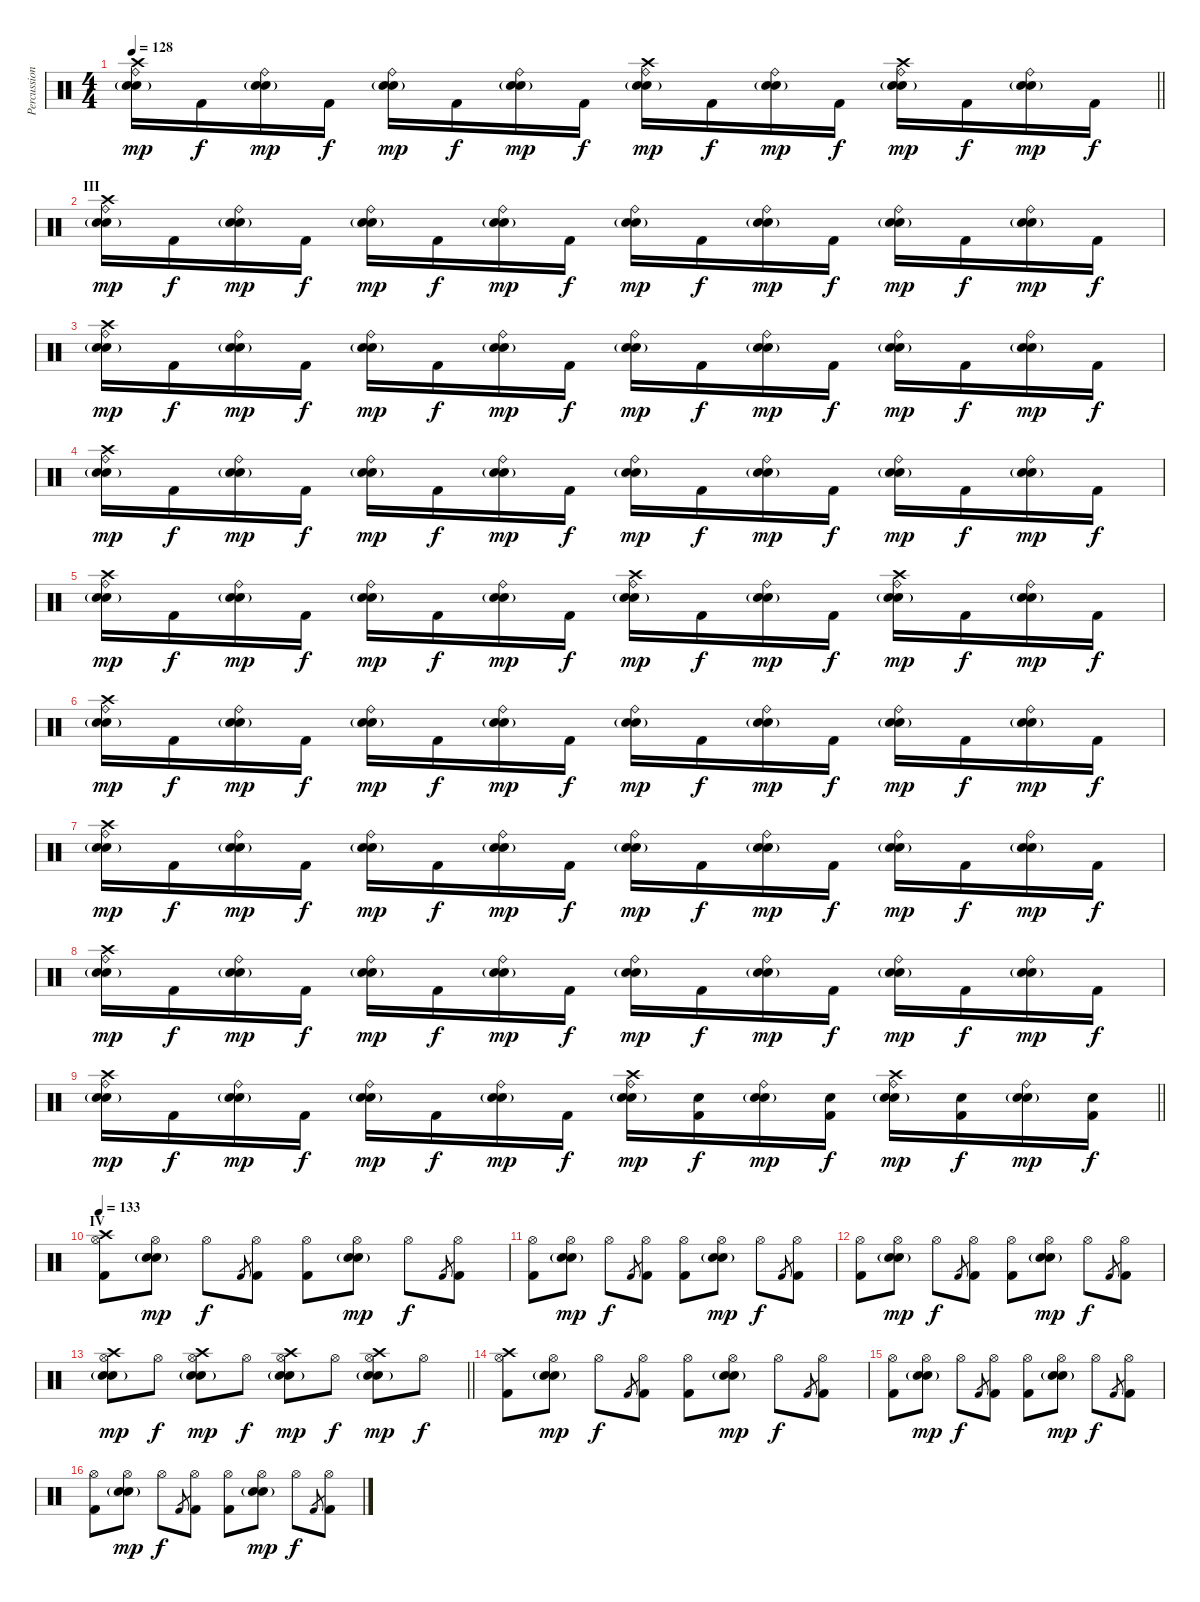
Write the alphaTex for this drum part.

\track ("Percussion" "Percussion") {instrument percussion}
\staff {score}
\articulation defaults
\ts (4 4)
\tempo 128
\clef neutral
\barLineRight lightlight
\ks c
("Crash high (hit)" "Electric Snare (hit)" "Snare (hit) 2"{g} "Ride (bell)").16{dy mp} "Kick (hit) 2".16{dy f} ("Electric Snare (hit)" "Snare (hit) 2"{g} "Ride (bell)").16{dy mp} "Kick (hit) 2".16{dy f} ("Electric Snare (hit)" "Snare (hit) 2"{g} "Ride (bell)").16{dy mp} "Kick (hit) 2".16{dy f} ("Electric Snare (hit)" "Snare (hit) 2"{g} "Ride (bell)").16{dy mp} "Kick (hit) 2".16{dy f} ("Crash high (hit)" "Electric Snare (hit)" "Snare (hit) 2"{g} "Ride (bell)").16{dy mp} "Kick (hit) 2".16{dy f} ("Electric Snare (hit)" "Snare (hit) 2"{g} "Ride (bell)").16{dy mp} "Kick (hit) 2".16{dy f} ("Crash high (hit)" "Electric Snare (hit)" "Snare (hit) 2"{g} "Ride (bell)").16{dy mp} "Kick (hit) 2".16{dy f} ("Electric Snare (hit)" "Snare (hit) 2"{g} "Ride (bell)").16{dy mp} "Kick (hit) 2".16{dy f} |
\section ("" "III")
("Crash high (hit)" "Electric Snare (hit)" "Snare (hit) 2"{g} "Ride (bell)").16{dy mp} "Kick (hit) 2".16{dy f} ("Electric Snare (hit)" "Snare (hit) 2"{g} "Ride (bell)").16{dy mp} "Kick (hit) 2".16{dy f} ("Electric Snare (hit)" "Snare (hit) 2"{g} "Ride (bell)").16{dy mp} "Kick (hit) 2".16{dy f} ("Electric Snare (hit)" "Snare (hit) 2"{g} "Ride (bell)").16{dy mp} "Kick (hit) 2".16{dy f} ("Electric Snare (hit)" "Snare (hit) 2"{g} "Ride (bell)").16{dy mp} "Kick (hit) 2".16{dy f} ("Electric Snare (hit)" "Snare (hit) 2"{g} "Ride (bell)").16{dy mp} "Kick (hit) 2".16{dy f} ("Electric Snare (hit)" "Snare (hit) 2"{g} "Ride (bell)").16{dy mp} "Kick (hit) 2".16{dy f} ("Electric Snare (hit)" "Snare (hit) 2"{g} "Ride (bell)").16{dy mp} "Kick (hit) 2".16{dy f} |
("Crash high (hit)" "Electric Snare (hit)" "Snare (hit) 2"{g} "Ride (bell)").16{dy mp} "Kick (hit) 2".16{dy f} ("Electric Snare (hit)" "Snare (hit) 2"{g} "Ride (bell)").16{dy mp} "Kick (hit) 2".16{dy f} ("Electric Snare (hit)" "Snare (hit) 2"{g} "Ride (bell)").16{dy mp} "Kick (hit) 2".16{dy f} ("Electric Snare (hit)" "Snare (hit) 2"{g} "Ride (bell)").16{dy mp} "Kick (hit) 2".16{dy f} ("Electric Snare (hit)" "Snare (hit) 2"{g} "Ride (bell)").16{dy mp} "Kick (hit) 2".16{dy f} ("Electric Snare (hit)" "Snare (hit) 2"{g} "Ride (bell)").16{dy mp} "Kick (hit) 2".16{dy f} ("Electric Snare (hit)" "Snare (hit) 2"{g} "Ride (bell)").16{dy mp} "Kick (hit) 2".16{dy f} ("Electric Snare (hit)" "Snare (hit) 2"{g} "Ride (bell)").16{dy mp} "Kick (hit) 2".16{dy f} |
("Crash high (hit)" "Electric Snare (hit)" "Snare (hit) 2"{g} "Ride (bell)").16{dy mp} "Kick (hit) 2".16{dy f} ("Electric Snare (hit)" "Snare (hit) 2"{g} "Ride (bell)").16{dy mp} "Kick (hit) 2".16{dy f} ("Electric Snare (hit)" "Snare (hit) 2"{g} "Ride (bell)").16{dy mp} "Kick (hit) 2".16{dy f} ("Electric Snare (hit)" "Snare (hit) 2"{g} "Ride (bell)").16{dy mp} "Kick (hit) 2".16{dy f} ("Electric Snare (hit)" "Snare (hit) 2"{g} "Ride (bell)").16{dy mp} "Kick (hit) 2".16{dy f} ("Electric Snare (hit)" "Snare (hit) 2"{g} "Ride (bell)").16{dy mp} "Kick (hit) 2".16{dy f} ("Electric Snare (hit)" "Snare (hit) 2"{g} "Ride (bell)").16{dy mp} "Kick (hit) 2".16{dy f} ("Electric Snare (hit)" "Snare (hit) 2"{g} "Ride (bell)").16{dy mp} "Kick (hit) 2".16{dy f} |
("Crash high (hit)" "Electric Snare (hit)" "Snare (hit) 2"{g} "Ride (bell)").16{dy mp} "Kick (hit) 2".16{dy f} ("Electric Snare (hit)" "Snare (hit) 2"{g} "Ride (bell)").16{dy mp} "Kick (hit) 2".16{dy f} ("Electric Snare (hit)" "Snare (hit) 2"{g} "Ride (bell)").16{dy mp} "Kick (hit) 2".16{dy f} ("Electric Snare (hit)" "Snare (hit) 2"{g} "Ride (bell)").16{dy mp} "Kick (hit) 2".16{dy f} ("Crash high (hit)" "Electric Snare (hit)" "Snare (hit) 2"{g} "Ride (bell)").16{dy mp} "Kick (hit) 2".16{dy f} ("Electric Snare (hit)" "Snare (hit) 2"{g} "Ride (bell)").16{dy mp} "Kick (hit) 2".16{dy f} ("Crash high (hit)" "Electric Snare (hit)" "Snare (hit) 2"{g} "Ride (bell)").16{dy mp} "Kick (hit) 2".16{dy f} ("Electric Snare (hit)" "Snare (hit) 2"{g} "Ride (bell)").16{dy mp} "Kick (hit) 2".16{dy f} |
("Crash high (hit)" "Electric Snare (hit)" "Snare (hit) 2"{g} "Ride (bell)").16{dy mp} "Kick (hit) 2".16{dy f} ("Electric Snare (hit)" "Snare (hit) 2"{g} "Ride (bell)").16{dy mp} "Kick (hit) 2".16{dy f} ("Electric Snare (hit)" "Snare (hit) 2"{g} "Ride (bell)").16{dy mp} "Kick (hit) 2".16{dy f} ("Electric Snare (hit)" "Snare (hit) 2"{g} "Ride (bell)").16{dy mp} "Kick (hit) 2".16{dy f} ("Electric Snare (hit)" "Snare (hit) 2"{g} "Ride (bell)").16{dy mp} "Kick (hit) 2".16{dy f} ("Electric Snare (hit)" "Snare (hit) 2"{g} "Ride (bell)").16{dy mp} "Kick (hit) 2".16{dy f} ("Electric Snare (hit)" "Snare (hit) 2"{g} "Ride (bell)").16{dy mp} "Kick (hit) 2".16{dy f} ("Electric Snare (hit)" "Snare (hit) 2"{g} "Ride (bell)").16{dy mp} "Kick (hit) 2".16{dy f} |
("Crash high (hit)" "Electric Snare (hit)" "Snare (hit) 2"{g} "Ride (bell)").16{dy mp} "Kick (hit) 2".16{dy f} ("Electric Snare (hit)" "Snare (hit) 2"{g} "Ride (bell)").16{dy mp} "Kick (hit) 2".16{dy f} ("Electric Snare (hit)" "Snare (hit) 2"{g} "Ride (bell)").16{dy mp} "Kick (hit) 2".16{dy f} ("Electric Snare (hit)" "Snare (hit) 2"{g} "Ride (bell)").16{dy mp} "Kick (hit) 2".16{dy f} ("Electric Snare (hit)" "Snare (hit) 2"{g} "Ride (bell)").16{dy mp} "Kick (hit) 2".16{dy f} ("Electric Snare (hit)" "Snare (hit) 2"{g} "Ride (bell)").16{dy mp} "Kick (hit) 2".16{dy f} ("Electric Snare (hit)" "Snare (hit) 2"{g} "Ride (bell)").16{dy mp} "Kick (hit) 2".16{dy f} ("Electric Snare (hit)" "Snare (hit) 2"{g} "Ride (bell)").16{dy mp} "Kick (hit) 2".16{dy f} |
("Crash high (hit)" "Electric Snare (hit)" "Snare (hit) 2"{g} "Ride (bell)").16{dy mp} "Kick (hit) 2".16{dy f} ("Electric Snare (hit)" "Snare (hit) 2"{g} "Ride (bell)").16{dy mp} "Kick (hit) 2".16{dy f} ("Electric Snare (hit)" "Snare (hit) 2"{g} "Ride (bell)").16{dy mp} "Kick (hit) 2".16{dy f} ("Electric Snare (hit)" "Snare (hit) 2"{g} "Ride (bell)").16{dy mp} "Kick (hit) 2".16{dy f} ("Electric Snare (hit)" "Snare (hit) 2"{g} "Ride (bell)").16{dy mp} "Kick (hit) 2".16{dy f} ("Electric Snare (hit)" "Snare (hit) 2"{g} "Ride (bell)").16{dy mp} "Kick (hit) 2".16{dy f} ("Electric Snare (hit)" "Snare (hit) 2"{g} "Ride (bell)").16{dy mp} "Kick (hit) 2".16{dy f} ("Electric Snare (hit)" "Snare (hit) 2"{g} "Ride (bell)").16{dy mp} "Kick (hit) 2".16{dy f} |
\barLineRight lightlight
("Crash high (hit)" "Electric Snare (hit)" "Snare (hit) 2"{g} "Ride (bell)").16{dy mp} "Kick (hit) 2".16{dy f} ("Electric Snare (hit)" "Snare (hit) 2"{g} "Ride (bell)").16{dy mp} "Kick (hit) 2".16{dy f} ("Electric Snare (hit)" "Snare (hit) 2"{g} "Ride (bell)").16{dy mp} "Kick (hit) 2".16{dy f} ("Electric Snare (hit)" "Snare (hit) 2"{g} "Ride (bell)").16{dy mp} "Kick (hit) 2".16{dy f} ("Crash high (hit)" "Electric Snare (hit)" "Snare (hit) 2"{g} "Ride (bell)").16{dy mp} ("Electric Snare (hit)" "Kick (hit) 2").16{dy f} ("Electric Snare (hit)" "Snare (hit) 2"{g} "Ride (bell)").16{dy mp} ("Electric Snare (hit)" "Kick (hit) 2").16{dy f} ("Crash high (hit)" "Electric Snare (hit)" "Snare (hit) 2"{g} "Ride (bell)").16{dy mp} ("Electric Snare (hit)" "Kick (hit) 2").16{dy f} ("Electric Snare (hit)" "Snare (hit) 2"{g} "Ride (bell)").16{dy mp} ("Electric Snare (hit)" "Kick (hit) 2").16{dy f} |
\section ("" "IV")
\tempo 133
("Crash high (hit)" "Kick (hit) 2" "Hi-Hat (open)").8 ("Electric Snare (hit)" "Snare (hit) 2"{g} "Hi-Hat (open)").8{dy mp} "Hi-Hat (open)".8{dy f} "Kick (hit) 2".8{gr} ("Kick (hit) 2" "Hi-Hat (open)").8 ("Kick (hit) 2" "Hi-Hat (open)").8 ("Electric Snare (hit)" "Snare (hit) 2"{g} "Hi-Hat (open)").8{dy mp} "Hi-Hat (open)".8{dy f} "Kick (hit) 2".8{gr} ("Kick (hit) 2" "Hi-Hat (open)").8 |
("Kick (hit) 2" "Hi-Hat (open)").8 ("Electric Snare (hit)" "Snare (hit) 2"{g} "Hi-Hat (open)").8{dy mp} "Hi-Hat (open)".8{dy f} "Kick (hit) 2".8{gr} ("Kick (hit) 2" "Hi-Hat (open)").8 ("Kick (hit) 2" "Hi-Hat (open)").8 ("Electric Snare (hit)" "Snare (hit) 2"{g} "Hi-Hat (open)").8{dy mp} "Hi-Hat (open)".8{dy f} "Kick (hit) 2".8{gr} ("Kick (hit) 2" "Hi-Hat (open)").8 |
("Kick (hit) 2" "Hi-Hat (open)").8 ("Electric Snare (hit)" "Snare (hit) 2"{g} "Hi-Hat (open)").8{dy mp} "Hi-Hat (open)".8{dy f} "Kick (hit) 2".8{gr} ("Kick (hit) 2" "Hi-Hat (open)").8 ("Kick (hit) 2" "Hi-Hat (open)").8 ("Electric Snare (hit)" "Snare (hit) 2"{g} "Hi-Hat (open)").8{dy mp} "Hi-Hat (open)".8{dy f} "Kick (hit) 2".8{gr} ("Kick (hit) 2" "Hi-Hat (open)").8 |
\barLineRight lightlight
("Crash high (hit)" "Electric Snare (hit)" "Snare (hit) 2"{g} "Hi-Hat (open)").8{dy mp} "Hi-Hat (open)".8{dy f} ("Crash high (hit)" "Electric Snare (hit)" "Snare (hit) 2"{g} "Hi-Hat (open)").8{dy mp} "Hi-Hat (open)".8{dy f} ("Crash high (hit)" "Electric Snare (hit)" "Snare (hit) 2"{g} "Hi-Hat (open)").8{dy mp} "Hi-Hat (open)".8{dy f} ("Crash high (hit)" "Electric Snare (hit)" "Snare (hit) 2"{g} "Hi-Hat (open)").8{dy mp} "Hi-Hat (open)".8{dy f} |
("Crash high (hit)" "Kick (hit) 2" "Hi-Hat (open)").8 ("Electric Snare (hit)" "Snare (hit) 2"{g} "Hi-Hat (open)").8{dy mp} "Hi-Hat (open)".8{dy f} "Kick (hit) 2".8{gr} ("Kick (hit) 2" "Hi-Hat (open)").8 ("Kick (hit) 2" "Hi-Hat (open)").8 ("Electric Snare (hit)" "Snare (hit) 2"{g} "Hi-Hat (open)").8{dy mp} "Hi-Hat (open)".8{dy f} "Kick (hit) 2".8{gr} ("Kick (hit) 2" "Hi-Hat (open)").8 |
("Kick (hit) 2" "Hi-Hat (open)").8 ("Electric Snare (hit)" "Snare (hit) 2"{g} "Hi-Hat (open)").8{dy mp} "Hi-Hat (open)".8{dy f} "Kick (hit) 2".8{gr} ("Kick (hit) 2" "Hi-Hat (open)").8 ("Kick (hit) 2" "Hi-Hat (open)").8 ("Electric Snare (hit)" "Snare (hit) 2"{g} "Hi-Hat (open)").8{dy mp} "Hi-Hat (open)".8{dy f} "Kick (hit) 2".8{gr} ("Kick (hit) 2" "Hi-Hat (open)").8 |
("Kick (hit) 2" "Hi-Hat (open)").8 ("Electric Snare (hit)" "Snare (hit) 2"{g} "Hi-Hat (open)").8{dy mp} "Hi-Hat (open)".8{dy f} "Kick (hit) 2".8{gr} ("Kick (hit) 2" "Hi-Hat (open)").8 ("Kick (hit) 2" "Hi-Hat (open)").8 ("Electric Snare (hit)" "Snare (hit) 2"{g} "Hi-Hat (open)").8{dy mp} "Hi-Hat (open)".8{dy f} "Kick (hit) 2".8{gr} ("Kick (hit) 2" "Hi-Hat (open)").8
